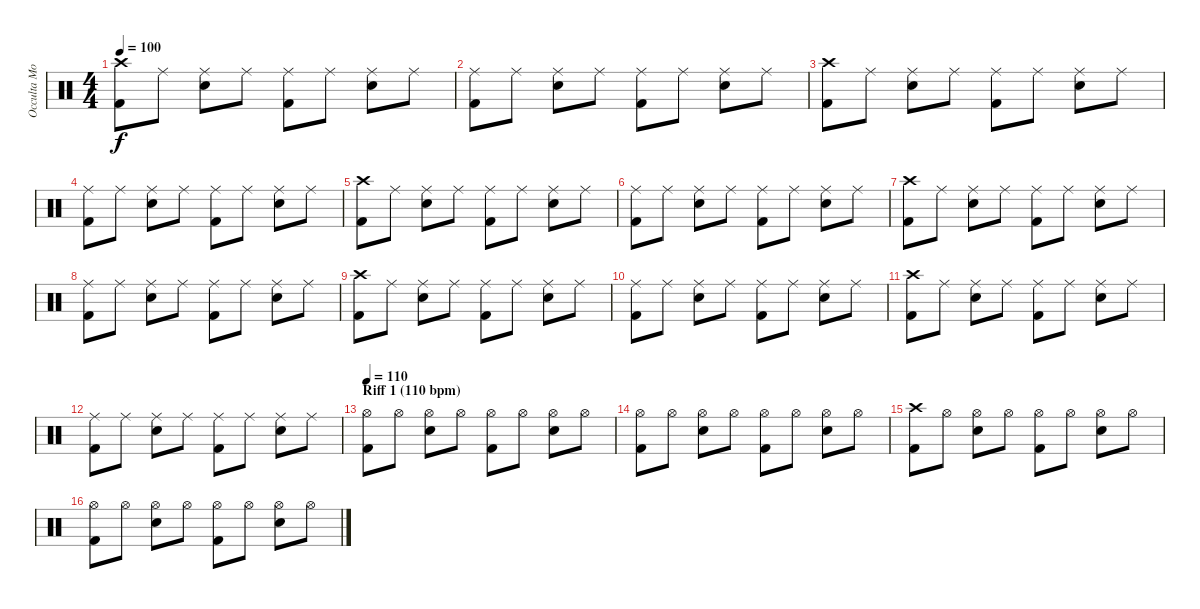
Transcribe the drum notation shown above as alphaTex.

\track ("Occulta Mors (Drums)" "Occulta Mo") {instrument percussion}
\staff {score}
\articulation defaults
\ts (4 4)
\tempo 100
\clef neutral
\ks c
("Crash high (hit)" "Kick (hit) 2").8{dy f} "Ride (middle)".8 ("Ride (middle)" "Snare (hit) 2").8 "Ride (middle)".8 ("Ride (middle)" "Kick (hit) 2").8 "Ride (middle)".8 ("Ride (middle)" "Snare (hit) 2").8 "Ride (middle)".8 |
("Ride (middle)" "Kick (hit) 2").8 "Ride (middle)".8 ("Ride (middle)" "Snare (hit) 2").8 "Ride (middle)".8 ("Ride (middle)" "Kick (hit) 2").8 "Ride (middle)".8 ("Ride (middle)" "Snare (hit) 2").8 "Ride (middle)".8 |
("Crash high (hit)" "Kick (hit) 2").8 "Ride (middle)".8 ("Ride (middle)" "Snare (hit) 2").8 "Ride (middle)".8 ("Ride (middle)" "Kick (hit) 2").8 "Ride (middle)".8 ("Ride (middle)" "Snare (hit) 2").8 "Ride (middle)".8 |
("Ride (middle)" "Kick (hit) 2").8 "Ride (middle)".8 ("Ride (middle)" "Snare (hit) 2").8 "Ride (middle)".8 ("Ride (middle)" "Kick (hit) 2").8 "Ride (middle)".8 ("Ride (middle)" "Snare (hit) 2").8 "Ride (middle)".8 |
("Crash high (hit)" "Kick (hit) 2").8 "Ride (middle)".8 ("Ride (middle)" "Snare (hit) 2").8 "Ride (middle)".8 ("Ride (middle)" "Kick (hit) 2").8 "Ride (middle)".8 ("Ride (middle)" "Snare (hit) 2").8 "Ride (middle)".8 |
("Ride (middle)" "Kick (hit) 2").8 "Ride (middle)".8 ("Ride (middle)" "Snare (hit) 2").8 "Ride (middle)".8 ("Ride (middle)" "Kick (hit) 2").8 "Ride (middle)".8 ("Ride (middle)" "Snare (hit) 2").8 "Ride (middle)".8 |
("Crash high (hit)" "Kick (hit) 2").8 "Ride (middle)".8 ("Ride (middle)" "Snare (hit) 2").8 "Ride (middle)".8 ("Ride (middle)" "Kick (hit) 2").8 "Ride (middle)".8 ("Ride (middle)" "Snare (hit) 2").8 "Ride (middle)".8 |
("Ride (middle)" "Kick (hit) 2").8 "Ride (middle)".8 ("Ride (middle)" "Snare (hit) 2").8 "Ride (middle)".8 ("Ride (middle)" "Kick (hit) 2").8 "Ride (middle)".8 ("Ride (middle)" "Snare (hit) 2").8 "Ride (middle)".8 |
("Crash high (hit)" "Kick (hit) 2").8 "Ride (middle)".8 ("Ride (middle)" "Snare (hit) 2").8 "Ride (middle)".8 ("Ride (middle)" "Kick (hit) 2").8 "Ride (middle)".8 ("Ride (middle)" "Snare (hit) 2").8 "Ride (middle)".8 |
("Ride (middle)" "Kick (hit) 2").8 "Ride (middle)".8 ("Ride (middle)" "Snare (hit) 2").8 "Ride (middle)".8 ("Ride (middle)" "Kick (hit) 2").8 "Ride (middle)".8 ("Ride (middle)" "Snare (hit) 2").8 "Ride (middle)".8 |
("Crash high (hit)" "Kick (hit) 2").8 "Ride (middle)".8 ("Ride (middle)" "Snare (hit) 2").8 "Ride (middle)".8 ("Ride (middle)" "Kick (hit) 2").8 "Ride (middle)".8 ("Ride (middle)" "Snare (hit) 2").8 "Ride (middle)".8 |
("Ride (middle)" "Kick (hit) 2").8 "Ride (middle)".8 ("Ride (middle)" "Snare (hit) 2").8 "Ride (middle)".8 ("Ride (middle)" "Kick (hit) 2").8 "Ride (middle)".8 ("Ride (middle)" "Snare (hit) 2").8 "Ride (middle)".8 |
\section ("" "Riff 1 (110 bpm)")
\tempo 110
("Hi-Hat (open)" "Kick (hit) 2").8 "Hi-Hat (open)".8 ("Hi-Hat (open)" "Snare (hit) 2").8 "Hi-Hat (open)".8 ("Hi-Hat (open)" "Kick (hit) 2").8 "Hi-Hat (open)".8 ("Hi-Hat (open)" "Snare (hit) 2").8 "Hi-Hat (open)".8 |
("Hi-Hat (open)" "Kick (hit) 2").8 "Hi-Hat (open)".8 ("Hi-Hat (open)" "Snare (hit) 2").8 "Hi-Hat (open)".8 ("Hi-Hat (open)" "Kick (hit) 2").8 "Hi-Hat (open)".8 ("Hi-Hat (open)" "Snare (hit) 2").8 "Hi-Hat (open)".8 |
("Crash high (hit)" "Kick (hit) 2").8 "Hi-Hat (open)".8 ("Hi-Hat (open)" "Snare (hit) 2").8 "Hi-Hat (open)".8 ("Hi-Hat (open)" "Kick (hit) 2").8 "Hi-Hat (open)".8 ("Hi-Hat (open)" "Snare (hit) 2").8 "Hi-Hat (open)".8 |
("Hi-Hat (open)" "Kick (hit) 2").8 "Hi-Hat (open)".8 ("Hi-Hat (open)" "Snare (hit) 2").8 "Hi-Hat (open)".8 ("Hi-Hat (open)" "Kick (hit) 2").8 "Hi-Hat (open)".8 ("Hi-Hat (open)" "Snare (hit) 2").8 "Hi-Hat (open)".8
